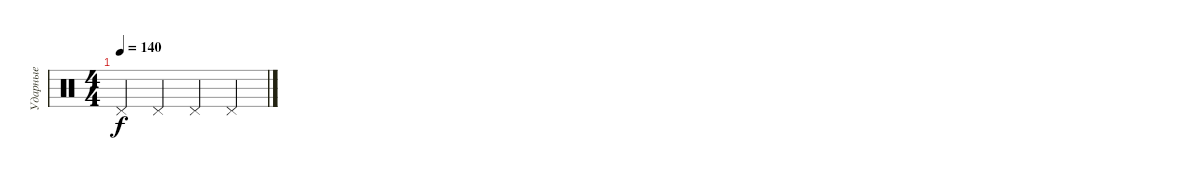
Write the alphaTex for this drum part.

\track ("Ударные" "Ударные") {instrument percussion}
\staff {score}
\articulation defaults
\ts (4 4)
\tempo 140
\clef neutral
\ks c "Pedal Hi-Hat (hit)".4{dy f} "Pedal Hi-Hat (hit)".4 "Pedal Hi-Hat (hit)".4 "Pedal Hi-Hat (hit)".4
